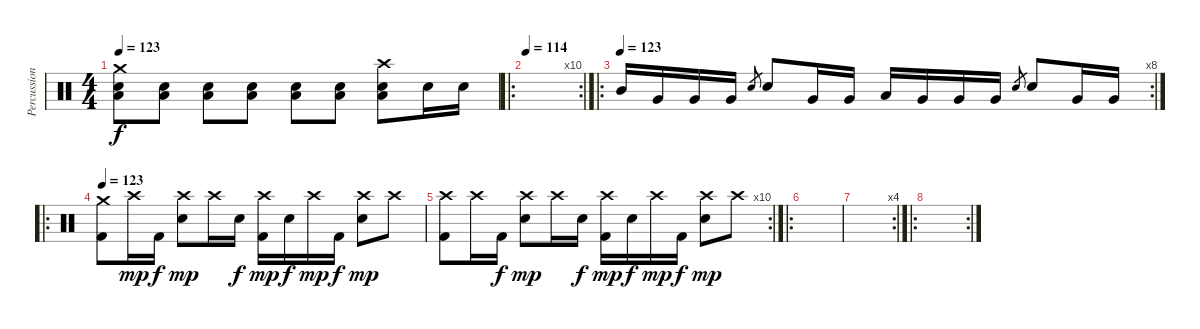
\track ("Percussion" "Percussion") {instrument percussion}
\staff {score}
\articulation defaults
\ts (4 4)
\tempo 123
\clef neutral
\ks c
("Crash medium (hit)" "Snare (hit) 2" "Low Tom (hit)").8{dy f} ("Snare (hit) 2" "Low Tom (hit)").8 ("Snare (hit) 2" "Low Tom (hit)").8 ("Snare (hit) 2" "Low Tom (hit)").8 ("Snare (hit) 2" "Low Tom (hit)").8 ("Snare (hit) 2" "Low Tom (hit)").8 ("Crash high (hit)" "Snare (hit) 2" "Low Tom (hit)").8 "Snare (hit) 2".16 "Snare (hit) 2".16 |
\ro
\rc 10
\tempo 114
|
\ro
\rc 8
\tempo (123)
"Mid Tom (hit)".16 "Very Low Tom (hit)".16 "Very Low Tom (hit)".16 "Very Low Tom (hit)".16 "Snare (hit) 2".8{gr} "Snare (hit) 2".8 "Very Low Tom (hit)".16 "Very Low Tom (hit)".16 "Low Tom (hit)".16 "Very Low Tom (hit)".16 "Very Low Tom (hit)".16 "Very Low Tom (hit)".16 "Snare (hit) 2".8{gr} "Snare (hit) 2".8 "Very Low Tom (hit)".16 "Very Low Tom (hit)".16 |
\ro
\tempo 123
("Crash medium (hit)" "Kick (hit) 2").8 "Crash high (hit)".16{dy mp} "Kick (hit) 2".16{dy f} ("Crash high (hit)" "Snare (hit) 2").8{dy mp} "Crash high (hit)".16 "Snare (hit) 2".16{dy f} ("Crash high (hit)" "Kick (hit) 2").16{dy mp} "Snare (hit) 2".16{dy f} "Crash high (hit)".16{dy mp} "Kick (hit) 2".16{dy f} ("Crash high (hit)" "Snare (hit) 2").8{dy mp} "Crash high (hit)".8 |
\rc 10
("Crash high (hit)" "Kick (hit) 2").8 "Crash high (hit)".16 "Kick (hit) 2".16{dy f} ("Crash high (hit)" "Snare (hit) 2").8{dy mp} "Crash high (hit)".16 "Snare (hit) 2".16{dy f} ("Crash high (hit)" "Kick (hit) 2").16{dy mp} "Snare (hit) 2".16{dy f} "Crash high (hit)".16{dy mp} "Kick (hit) 2".16{dy f} ("Crash high (hit)" "Snare (hit) 2").8{dy mp} "Crash high (hit)".8 |
\ro
|
\rc 4
|
\ro
\rc 2
